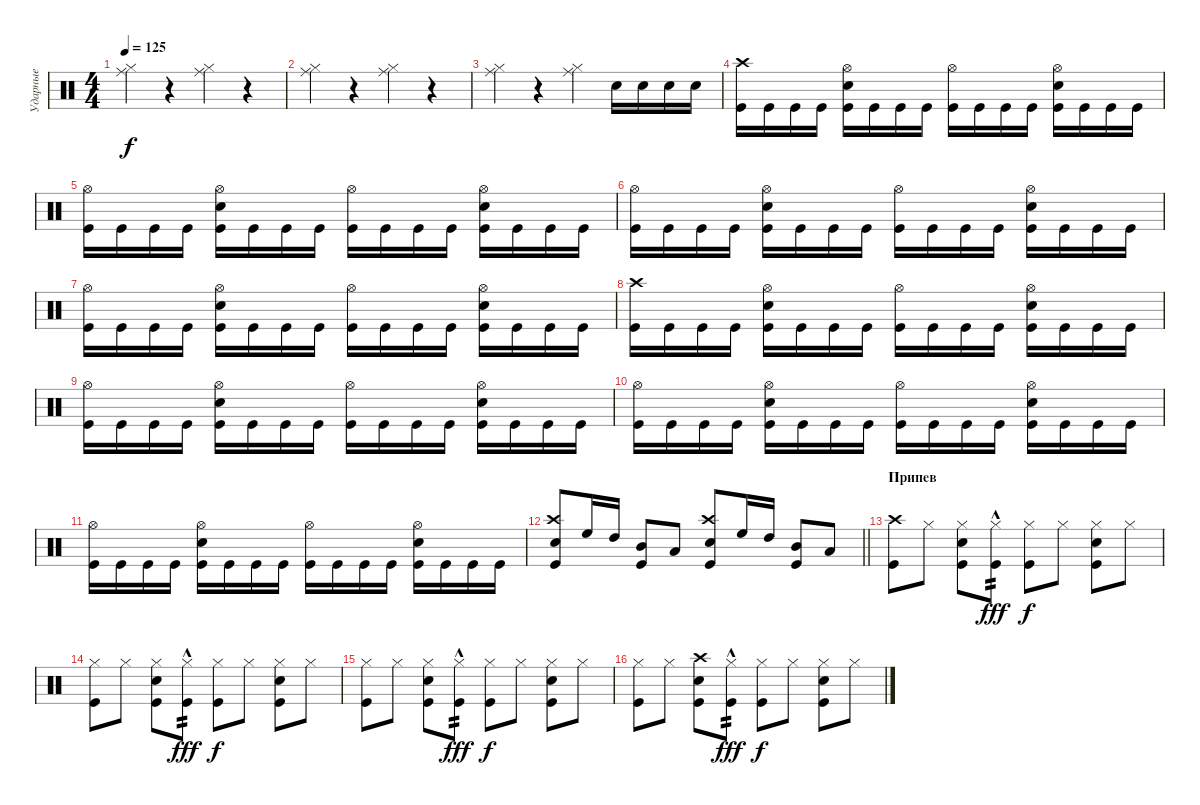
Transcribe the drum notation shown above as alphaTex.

\track ("Ударные" "Ударные") {instrument percussion}
\staff {score}
\articulation defaults
\ts (4 4)
\tempo 125
\clef neutral
\ks c
("Hi-Hat (closed)" "Ride (middle)").4{dy f} r.4 ("Hi-Hat (closed)" "Ride (middle)").4 r.4 |
("Hi-Hat (closed)" "Ride (middle)").4 r.4 ("Hi-Hat (closed)" "Ride (middle)").4 r.4 |
("Hi-Hat (closed)" "Ride (middle)").4 r.4 ("Hi-Hat (closed)" "Ride (middle)").4 "Snare (hit) 2".16 "Snare (hit) 2".16 "Snare (hit) 2".16 "Snare (hit) 2".16 |
("Crash high (hit)" "Kick (hit)").16 "Kick (hit)".16 "Kick (hit)".16 "Kick (hit)".16 ("Hi-Hat (open)" "Snare (hit) 2" "Kick (hit)").16 "Kick (hit)".16 "Kick (hit)".16 "Kick (hit)".16 ("Hi-Hat (open)" "Kick (hit)").16 "Kick (hit)".16 "Kick (hit)".16 "Kick (hit)".16 ("Hi-Hat (open)" "Snare (hit) 2" "Kick (hit)").16 "Kick (hit)".16 "Kick (hit)".16 "Kick (hit)".16 |
("Hi-Hat (open)" "Kick (hit)").16 "Kick (hit)".16 "Kick (hit)".16 "Kick (hit)".16 ("Hi-Hat (open)" "Snare (hit) 2" "Kick (hit)").16 "Kick (hit)".16 "Kick (hit)".16 "Kick (hit)".16 ("Hi-Hat (open)" "Kick (hit)").16 "Kick (hit)".16 "Kick (hit)".16 "Kick (hit)".16 ("Hi-Hat (open)" "Snare (hit) 2" "Kick (hit)").16 "Kick (hit)".16 "Kick (hit)".16 "Kick (hit)".16 |
("Hi-Hat (open)" "Kick (hit)").16 "Kick (hit)".16 "Kick (hit)".16 "Kick (hit)".16 ("Hi-Hat (open)" "Snare (hit) 2" "Kick (hit)").16 "Kick (hit)".16 "Kick (hit)".16 "Kick (hit)".16 ("Hi-Hat (open)" "Kick (hit)").16 "Kick (hit)".16 "Kick (hit)".16 "Kick (hit)".16 ("Hi-Hat (open)" "Snare (hit) 2" "Kick (hit)").16 "Kick (hit)".16 "Kick (hit)".16 "Kick (hit)".16 |
("Hi-Hat (open)" "Kick (hit)").16 "Kick (hit)".16 "Kick (hit)".16 "Kick (hit)".16 ("Hi-Hat (open)" "Snare (hit) 2" "Kick (hit)").16 "Kick (hit)".16 "Kick (hit)".16 "Kick (hit)".16 ("Hi-Hat (open)" "Kick (hit)").16 "Kick (hit)".16 "Kick (hit)".16 "Kick (hit)".16 ("Hi-Hat (open)" "Snare (hit) 2" "Kick (hit)").16 "Kick (hit)".16 "Kick (hit)".16 "Kick (hit)".16 |
("Crash high (hit)" "Kick (hit)").16 "Kick (hit)".16 "Kick (hit)".16 "Kick (hit)".16 ("Hi-Hat (open)" "Snare (hit) 2" "Kick (hit)").16 "Kick (hit)".16 "Kick (hit)".16 "Kick (hit)".16 ("Hi-Hat (open)" "Kick (hit)").16 "Kick (hit)".16 "Kick (hit)".16 "Kick (hit)".16 ("Hi-Hat (open)" "Snare (hit) 2" "Kick (hit)").16 "Kick (hit)".16 "Kick (hit)".16 "Kick (hit)".16 |
("Hi-Hat (open)" "Kick (hit)").16 "Kick (hit)".16 "Kick (hit)".16 "Kick (hit)".16 ("Hi-Hat (open)" "Snare (hit) 2" "Kick (hit)").16 "Kick (hit)".16 "Kick (hit)".16 "Kick (hit)".16 ("Hi-Hat (open)" "Kick (hit)").16 "Kick (hit)".16 "Kick (hit)".16 "Kick (hit)".16 ("Hi-Hat (open)" "Snare (hit) 2" "Kick (hit)").16 "Kick (hit)".16 "Kick (hit)".16 "Kick (hit)".16 |
("Hi-Hat (open)" "Kick (hit)").16 "Kick (hit)".16 "Kick (hit)".16 "Kick (hit)".16 ("Hi-Hat (open)" "Snare (hit) 2" "Kick (hit)").16 "Kick (hit)".16 "Kick (hit)".16 "Kick (hit)".16 ("Hi-Hat (open)" "Kick (hit)").16 "Kick (hit)".16 "Kick (hit)".16 "Kick (hit)".16 ("Hi-Hat (open)" "Snare (hit) 2" "Kick (hit)").16 "Kick (hit)".16 "Kick (hit)".16 "Kick (hit)".16 |
("Hi-Hat (open)" "Kick (hit)").16 "Kick (hit)".16 "Kick (hit)".16 "Kick (hit)".16 ("Hi-Hat (open)" "Snare (hit) 2" "Kick (hit)").16 "Kick (hit)".16 "Kick (hit)".16 "Kick (hit)".16 ("Hi-Hat (open)" "Kick (hit)").16 "Kick (hit)".16 "Kick (hit)".16 "Kick (hit)".16 ("Hi-Hat (open)" "Snare (hit) 2" "Kick (hit)").16 "Kick (hit)".16 "Kick (hit)".16 "Kick (hit)".16 |
\barLineRight lightlight
("Crash high (hit)" "Snare (hit) 2" "Kick (hit)").8 "High Floor Tom (hit)".16 "High Tom (hit)".16 ("Mid Tom (hit)" "Kick (hit)").8 "Low Tom (hit)".8 ("Crash high (hit)" "Snare (hit) 2" "Kick (hit)").8 "High Floor Tom (hit)".16 "High Tom (hit)".16 ("Mid Tom (hit)" "Kick (hit)").8 "Low Tom (hit)".8 |
\section ("" "Припев")
("Crash high (hit)" "Kick (hit)").8 "Hi-Hat (closed)".8 ("Hi-Hat (closed)" "Snare (hit) 2" "Kick (hit)").8 ("Hi-Hat (closed)" "Kick (hit)"{hac}).8{tp 2 dy fff} ("Hi-Hat (closed)" "Kick (hit)").8{dy f} "Hi-Hat (closed)".8 ("Hi-Hat (closed)" "Snare (hit) 2" "Kick (hit)").8 "Hi-Hat (closed)".8 |
("Hi-Hat (closed)" "Kick (hit)").8 "Hi-Hat (closed)".8 ("Hi-Hat (closed)" "Snare (hit) 2" "Kick (hit)").8 ("Hi-Hat (closed)" "Kick (hit)"{hac}).8{tp 2 dy fff} ("Hi-Hat (closed)" "Kick (hit)").8{dy f} "Hi-Hat (closed)".8 ("Hi-Hat (closed)" "Snare (hit) 2" "Kick (hit)").8 "Hi-Hat (closed)".8 |
("Hi-Hat (closed)" "Kick (hit)").8 "Hi-Hat (closed)".8 ("Hi-Hat (closed)" "Snare (hit) 2" "Kick (hit)").8 ("Hi-Hat (closed)" "Kick (hit)"{hac}).8{tp 2 dy fff} ("Hi-Hat (closed)" "Kick (hit)").8{dy f} "Hi-Hat (closed)".8 ("Hi-Hat (closed)" "Snare (hit) 2" "Kick (hit)").8 "Hi-Hat (closed)".8 |
("Hi-Hat (closed)" "Kick (hit)").8 "Hi-Hat (closed)".8 ("Crash high (hit)" "Snare (hit) 2" "Kick (hit)").8 ("Hi-Hat (closed)" "Kick (hit)"{hac}).8{tp 2 dy fff} ("Hi-Hat (closed)" "Kick (hit)").8{dy f} "Hi-Hat (closed)".8 ("Hi-Hat (closed)" "Snare (hit) 2" "Kick (hit)").8 "Hi-Hat (closed)".8
